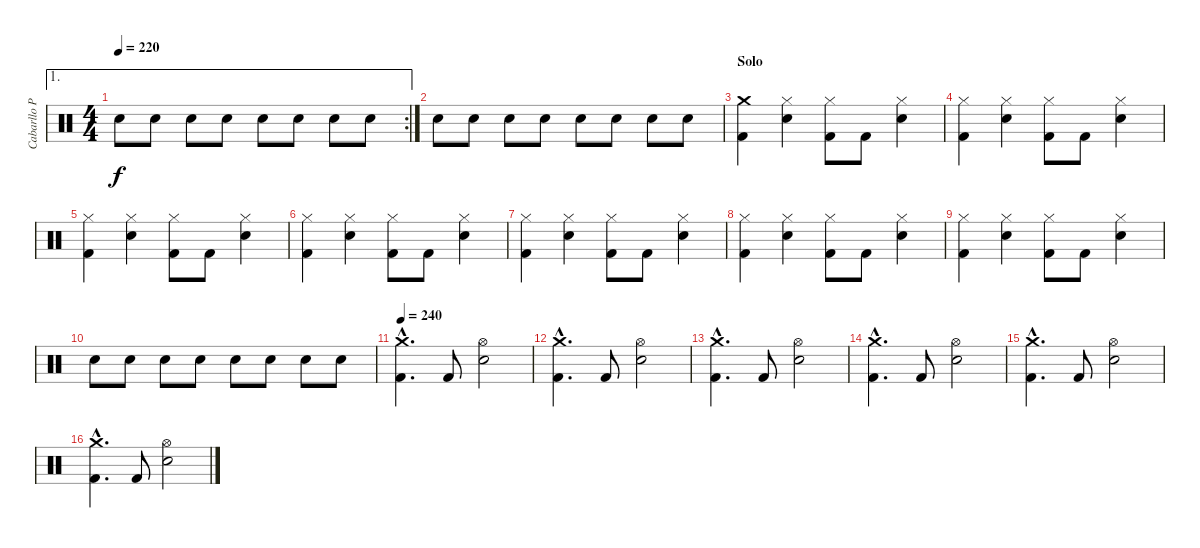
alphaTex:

\track ("Cabarllo Pepe" "Cabarllo P") {instrument percussion}
\staff {score}
\articulation defaults
\ae 1
\rc 2
\ts (4 4)
\tempo 220
\clef neutral
\ks c "Electric Snare (hit)".8{dy f} "Electric Snare (hit)".8 "Electric Snare (hit)".8 "Electric Snare (hit)".8 "Electric Snare (hit)".8 "Electric Snare (hit)".8 "Electric Snare (hit)".8 "Electric Snare (hit)".8
|
"Electric Snare (hit)".8 "Electric Snare (hit)".8 "Electric Snare (hit)".8 "Electric Snare (hit)".8 "Electric Snare (hit)".8 "Electric Snare (hit)".8 "Electric Snare (hit)".8 "Electric Snare (hit)".8 |
\section ("" "Solo")
("Crash medium (hit)" "Kick (hit) 2").4 ("Hi-Hat (closed)" "Electric Snare (hit)").4 ("Hi-Hat (closed)" "Kick (hit) 2").8 "Kick (hit) 2".8 ("Hi-Hat (closed)" "Electric Snare (hit)").4 |
("Hi-Hat (closed)" "Kick (hit) 2").4 ("Hi-Hat (closed)" "Electric Snare (hit)").4 ("Hi-Hat (closed)" "Kick (hit) 2").8 "Kick (hit) 2".8 ("Hi-Hat (closed)" "Electric Snare (hit)").4 |
("Hi-Hat (closed)" "Kick (hit) 2").4 ("Hi-Hat (closed)" "Electric Snare (hit)").4 ("Hi-Hat (closed)" "Kick (hit) 2").8 "Kick (hit) 2".8 ("Hi-Hat (closed)" "Electric Snare (hit)").4 |
("Hi-Hat (closed)" "Kick (hit) 2").4 ("Hi-Hat (closed)" "Electric Snare (hit)").4 ("Hi-Hat (closed)" "Kick (hit) 2").8 "Kick (hit) 2".8 ("Hi-Hat (closed)" "Electric Snare (hit)").4 |
("Hi-Hat (closed)" "Kick (hit) 2").4 ("Hi-Hat (closed)" "Electric Snare (hit)").4 ("Hi-Hat (closed)" "Kick (hit) 2").8 "Kick (hit) 2".8 ("Hi-Hat (closed)" "Electric Snare (hit)").4 |
("Hi-Hat (closed)" "Kick (hit) 2").4 ("Hi-Hat (closed)" "Electric Snare (hit)").4 ("Hi-Hat (closed)" "Kick (hit) 2").8 "Kick (hit) 2".8 ("Hi-Hat (closed)" "Electric Snare (hit)").4 |
("Hi-Hat (closed)" "Kick (hit) 2").4 ("Hi-Hat (closed)" "Electric Snare (hit)").4 ("Hi-Hat (closed)" "Kick (hit) 2").8 "Kick (hit) 2".8 ("Hi-Hat (closed)" "Electric Snare (hit)").4 |
"Electric Snare (hit)".8 "Electric Snare (hit)".8 "Electric Snare (hit)".8 "Electric Snare (hit)".8 "Electric Snare (hit)".8 "Electric Snare (hit)".8 "Electric Snare (hit)".8 "Electric Snare (hit)".8 |
\tempo 240
("Crash medium (hit)"{hac} "Kick (hit) 2"{hac}).4{d} "Kick (hit) 2".8 ("Hi-Hat (open)" "Electric Snare (hit)").2 |
("Crash medium (hit)"{hac} "Kick (hit) 2"{hac}).4{d} "Kick (hit) 2".8 ("Hi-Hat (open)" "Electric Snare (hit)").2 |
("Crash medium (hit)"{hac} "Kick (hit) 2"{hac}).4{d} "Kick (hit) 2".8 ("Hi-Hat (open)" "Electric Snare (hit)").2 |
("Crash medium (hit)"{hac} "Kick (hit) 2"{hac}).4{d} "Kick (hit) 2".8 ("Hi-Hat (open)" "Electric Snare (hit)").2 |
("Crash medium (hit)"{hac} "Kick (hit) 2"{hac}).4{d} "Kick (hit) 2".8 ("Hi-Hat (open)" "Electric Snare (hit)").2 |
("Crash medium (hit)"{hac} "Kick (hit) 2"{hac}).4{d} "Kick (hit) 2".8 ("Hi-Hat (open)" "Electric Snare (hit)").2
